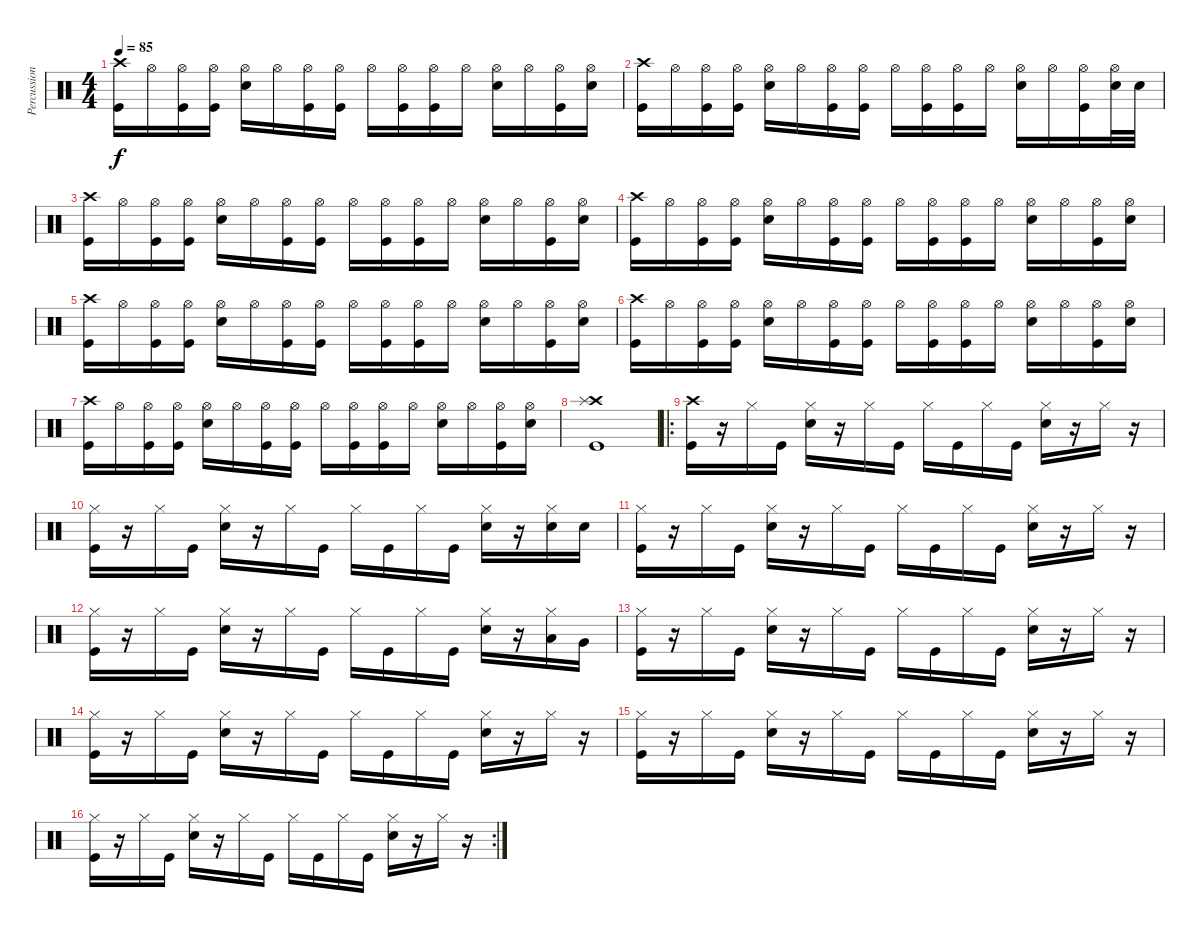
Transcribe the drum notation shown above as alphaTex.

\track ("Percussion" "Percussion") {instrument percussion}
\staff {score}
\articulation defaults
\ts (4 4)
\tempo 85
\clef neutral
\ks c
("Crash high (hit)" "Kick (hit)").16{dy f} "Hi-Hat (open)".16 ("Hi-Hat (open)" "Kick (hit)").16 ("Hi-Hat (open)" "Kick (hit)").16 ("Hi-Hat (open)" "Snare (hit) 2").16 "Hi-Hat (open)".16 ("Hi-Hat (open)" "Kick (hit)").16 ("Hi-Hat (open)" "Kick (hit)").16 "Hi-Hat (open)".16 ("Hi-Hat (open)" "Kick (hit)").16 ("Hi-Hat (open)" "Kick (hit)").16 "Hi-Hat (open)".16 ("Hi-Hat (open)" "Snare (hit) 2").16 "Hi-Hat (open)".16 ("Hi-Hat (open)" "Kick (hit)").16 ("Hi-Hat (open)" "Snare (hit) 2").16 |
("Crash high (hit)" "Kick (hit)").16 "Hi-Hat (open)".16 ("Hi-Hat (open)" "Kick (hit)").16 ("Hi-Hat (open)" "Kick (hit)").16 ("Hi-Hat (open)" "Snare (hit) 2").16 "Hi-Hat (open)".16 ("Hi-Hat (open)" "Kick (hit)").16 ("Hi-Hat (open)" "Kick (hit)").16 "Hi-Hat (open)".16 ("Hi-Hat (open)" "Kick (hit)").16 ("Hi-Hat (open)" "Kick (hit)").16 "Hi-Hat (open)".16 ("Hi-Hat (open)" "Snare (hit) 2").16 "Hi-Hat (open)".16 ("Hi-Hat (open)" "Kick (hit)").16 ("Hi-Hat (open)" "Snare (hit) 2").32 "Snare (hit) 2".32 |
("Crash high (hit)" "Kick (hit)").16 "Hi-Hat (open)".16 ("Hi-Hat (open)" "Kick (hit)").16 ("Hi-Hat (open)" "Kick (hit)").16 ("Hi-Hat (open)" "Snare (hit) 2").16 "Hi-Hat (open)".16 ("Hi-Hat (open)" "Kick (hit)").16 ("Hi-Hat (open)" "Kick (hit)").16 "Hi-Hat (open)".16 ("Hi-Hat (open)" "Kick (hit)").16 ("Hi-Hat (open)" "Kick (hit)").16 "Hi-Hat (open)".16 ("Hi-Hat (open)" "Snare (hit) 2").16 "Hi-Hat (open)".16 ("Hi-Hat (open)" "Kick (hit)").16 ("Hi-Hat (open)" "Snare (hit) 2").16 |
("Crash high (hit)" "Kick (hit)").16 "Hi-Hat (open)".16 ("Hi-Hat (open)" "Kick (hit)").16 ("Hi-Hat (open)" "Kick (hit)").16 ("Hi-Hat (open)" "Snare (hit) 2").16 "Hi-Hat (open)".16 ("Hi-Hat (open)" "Kick (hit)").16 ("Hi-Hat (open)" "Kick (hit)").16 "Hi-Hat (open)".16 ("Hi-Hat (open)" "Kick (hit)").16 ("Hi-Hat (open)" "Kick (hit)").16 "Hi-Hat (open)".16 ("Hi-Hat (open)" "Snare (hit) 2").16 "Hi-Hat (open)".16 ("Hi-Hat (open)" "Kick (hit)").16 ("Hi-Hat (open)" "Snare (hit) 2").16 |
("Crash high (hit)" "Kick (hit)").16 "Hi-Hat (open)".16 ("Hi-Hat (open)" "Kick (hit)").16 ("Hi-Hat (open)" "Kick (hit)").16 ("Hi-Hat (open)" "Snare (hit) 2").16 "Hi-Hat (open)".16 ("Hi-Hat (open)" "Kick (hit)").16 ("Hi-Hat (open)" "Kick (hit)").16 "Hi-Hat (open)".16 ("Hi-Hat (open)" "Kick (hit)").16 ("Hi-Hat (open)" "Kick (hit)").16 "Hi-Hat (open)".16 ("Hi-Hat (open)" "Snare (hit) 2").16 "Hi-Hat (open)".16 ("Hi-Hat (open)" "Kick (hit)").16 ("Hi-Hat (open)" "Snare (hit) 2").16 |
("Crash high (hit)" "Kick (hit)").16 "Hi-Hat (open)".16 ("Hi-Hat (open)" "Kick (hit)").16 ("Hi-Hat (open)" "Kick (hit)").16 ("Hi-Hat (open)" "Snare (hit) 2").16 "Hi-Hat (open)".16 ("Hi-Hat (open)" "Kick (hit)").16 ("Hi-Hat (open)" "Kick (hit)").16 "Hi-Hat (open)".16 ("Hi-Hat (open)" "Kick (hit)").16 ("Hi-Hat (open)" "Kick (hit)").16 "Hi-Hat (open)".16 ("Hi-Hat (open)" "Snare (hit) 2").16 "Hi-Hat (open)".16 ("Hi-Hat (open)" "Kick (hit)").16 ("Hi-Hat (open)" "Snare (hit) 2").16 |
("Crash high (hit)" "Kick (hit)").16 "Hi-Hat (open)".16 ("Hi-Hat (open)" "Kick (hit)").16 ("Hi-Hat (open)" "Kick (hit)").16 ("Hi-Hat (open)" "Snare (hit) 2").16 "Hi-Hat (open)".16 ("Hi-Hat (open)" "Kick (hit)").16 ("Hi-Hat (open)" "Kick (hit)").16 "Hi-Hat (open)".16 ("Hi-Hat (open)" "Kick (hit)").16 ("Hi-Hat (open)" "Kick (hit)").16 "Hi-Hat (open)".16 ("Hi-Hat (open)" "Snare (hit) 2").16 "Hi-Hat (open)".16 ("Hi-Hat (open)" "Kick (hit)").16 ("Hi-Hat (open)" "Snare (hit) 2").16 |
("Crash high (hit)" "Kick (hit)" "Splash (hit)").1 |
\ro
("Crash high (hit)" "Kick (hit)").16 r.16 "Hi-Hat (closed)".16 "Kick (hit)".16 ("Hi-Hat (closed)" "Snare (hit) 2").16 r.16 "Hi-Hat (closed)".16 "Kick (hit)".16 "Hi-Hat (closed)".16 "Kick (hit)".16 "Hi-Hat (closed)".16 "Kick (hit)".16 ("Hi-Hat (closed)" "Snare (hit) 2").16 r.16 "Hi-Hat (closed)".16 r.16 |
("Hi-Hat (closed)" "Kick (hit)").16 r.16 "Hi-Hat (closed)".16 "Kick (hit)".16 ("Hi-Hat (closed)" "Snare (hit) 2").16 r.16 "Hi-Hat (closed)".16 "Kick (hit)".16 "Hi-Hat (closed)".16 "Kick (hit)".16 "Hi-Hat (closed)".16 "Kick (hit)".16 ("Hi-Hat (closed)" "Snare (hit) 2").16 r.16 ("Hi-Hat (closed)" "Snare (hit) 2").16 "Snare (hit) 2".16 |
("Hi-Hat (closed)" "Kick (hit)").16 r.16 "Hi-Hat (closed)".16 "Kick (hit)".16 ("Hi-Hat (closed)" "Snare (hit) 2").16 r.16 "Hi-Hat (closed)".16 "Kick (hit)".16 "Hi-Hat (closed)".16 "Kick (hit)".16 "Hi-Hat (closed)".16 "Kick (hit)".16 ("Hi-Hat (closed)" "Snare (hit) 2").16 r.16 "Hi-Hat (closed)".16 r.16 |
("Hi-Hat (closed)" "Kick (hit)").16 r.16 "Hi-Hat (closed)".16 "Kick (hit)".16 ("Hi-Hat (closed)" "Snare (hit) 2").16 r.16 "Hi-Hat (closed)".16 "Kick (hit)".16 "Hi-Hat (closed)".16 "Kick (hit)".16 "Hi-Hat (closed)".16 "Kick (hit)".16 ("Hi-Hat (closed)" "Snare (hit) 2").16 r.16 ("Hi-Hat (closed)" "Low Tom (hit)").16 "Very Low Tom (hit)".16 |
("Hi-Hat (closed)" "Kick (hit)").16 r.16 "Hi-Hat (closed)".16 "Kick (hit)".16 ("Hi-Hat (closed)" "Snare (hit) 2").16 r.16 "Hi-Hat (closed)".16 "Kick (hit)".16 "Hi-Hat (closed)".16 "Kick (hit)".16 "Hi-Hat (closed)".16 "Kick (hit)".16 ("Hi-Hat (closed)" "Snare (hit) 2").16 r.16 "Hi-Hat (closed)".16 r.16 |
("Hi-Hat (closed)" "Kick (hit)").16 r.16 "Hi-Hat (closed)".16 "Kick (hit)".16 ("Hi-Hat (closed)" "Snare (hit) 2").16 r.16 "Hi-Hat (closed)".16 "Kick (hit)".16 "Hi-Hat (closed)".16 "Kick (hit)".16 "Hi-Hat (closed)".16 "Kick (hit)".16 ("Hi-Hat (closed)" "Snare (hit) 2").16 r.16 "Hi-Hat (closed)".16 r.16 |
("Hi-Hat (closed)" "Kick (hit)").16 r.16 "Hi-Hat (closed)".16 "Kick (hit)".16 ("Hi-Hat (closed)" "Snare (hit) 2").16 r.16 "Hi-Hat (closed)".16 "Kick (hit)".16 "Hi-Hat (closed)".16 "Kick (hit)".16 "Hi-Hat (closed)".16 "Kick (hit)".16 ("Hi-Hat (closed)" "Snare (hit) 2").16 r.16 "Hi-Hat (closed)".16 r.16 |
\rc 2
("Hi-Hat (closed)" "Kick (hit)").16 r.16 "Hi-Hat (closed)".16 "Kick (hit)".16 ("Hi-Hat (closed)" "Snare (hit) 2").16 r.16 "Hi-Hat (closed)".16 "Kick (hit)".16 "Hi-Hat (closed)".16 "Kick (hit)".16 "Hi-Hat (closed)".16 "Kick (hit)".16 ("Hi-Hat (closed)" "Snare (hit) 2").16 r.16 "Hi-Hat (closed)".16 r.16
